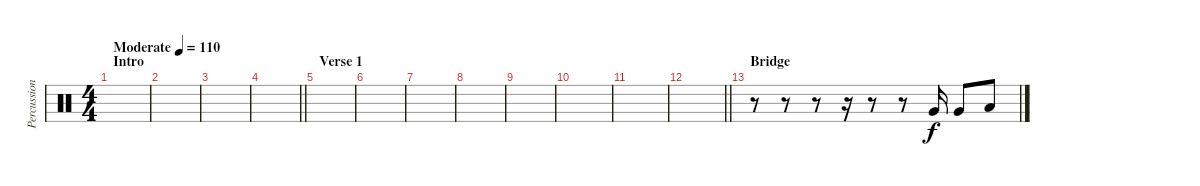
\track ("Percussion Toms" "Percussion") {instrument percussion}
\staff {score}
\articulation defaults
\ts (4 4)
\section ("" "Intro")
\tempo (110 "Moderate")
\clef neutral
\ks c
|
|
|
\barLineRight lightlight
|
\section ("" "Verse 1")
|
|
|
|
|
|
|
\barLineRight lightlight
|
\section ("" "Bridge")
r.8 r.8 r.8 r.16 r.8 r.8 "Very Low Tom (hit)".16 "Very Low Tom (hit)".8 "Low Floor Tom (hit)".8
